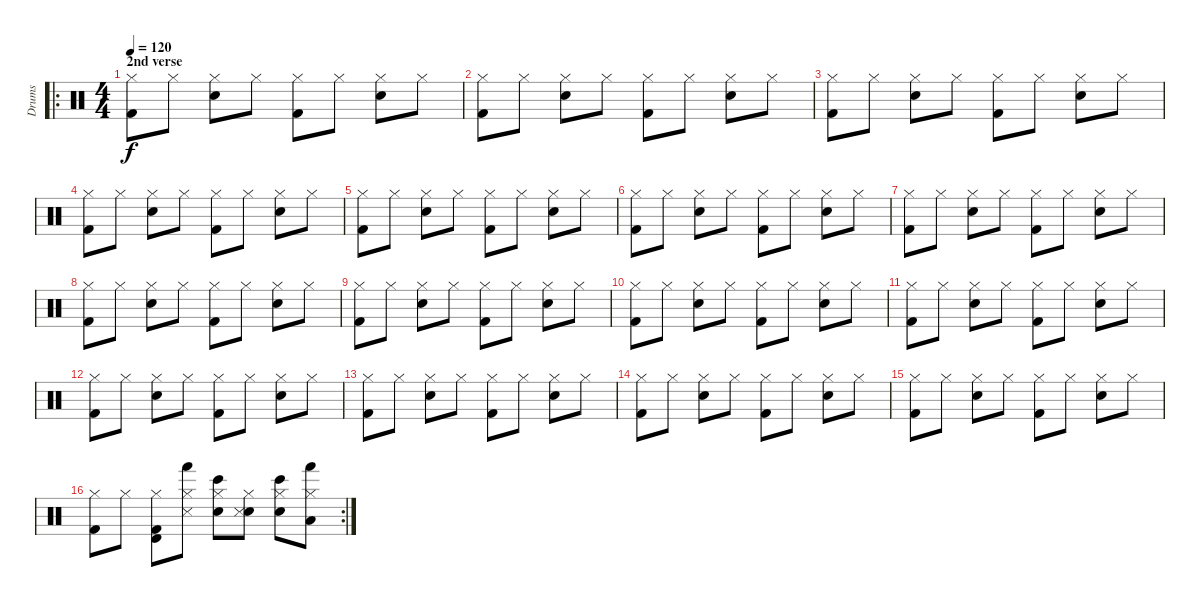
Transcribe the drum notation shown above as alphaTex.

\track ("Drums" "Drums") {instrument percussion}
\staff {score}
\articulation defaults
\ro
\ts (4 4)
\section ("" "2nd verse")
\tempo 120
\clef neutral
\ks c
("Hi-Hat (closed)" "Kick (hit) 2").8{dy f} "Hi-Hat (closed)".8 ("Hi-Hat (closed)" "Snare (hit) 2").8 "Hi-Hat (closed)".8 ("Hi-Hat (closed)" "Kick (hit) 2").8 "Hi-Hat (closed)".8 ("Hi-Hat (closed)" "Snare (hit) 2").8 "Hi-Hat (closed)".8 |
("Hi-Hat (closed)" "Kick (hit) 2").8 "Hi-Hat (closed)".8 ("Hi-Hat (closed)" "Snare (hit) 2").8 "Hi-Hat (closed)".8 ("Hi-Hat (closed)" "Kick (hit) 2").8 "Hi-Hat (closed)".8 ("Hi-Hat (closed)" "Snare (hit) 2").8 "Hi-Hat (closed)".8 |
("Hi-Hat (closed)" "Kick (hit) 2").8 "Hi-Hat (closed)".8 ("Hi-Hat (closed)" "Snare (hit) 2").8 "Hi-Hat (closed)".8 ("Hi-Hat (closed)" "Kick (hit) 2").8 "Hi-Hat (closed)".8 ("Hi-Hat (closed)" "Snare (hit) 2").8 "Hi-Hat (closed)".8 |
("Hi-Hat (closed)" "Kick (hit) 2").8 "Hi-Hat (closed)".8 ("Hi-Hat (closed)" "Snare (hit) 2").8 "Hi-Hat (closed)".8 ("Hi-Hat (closed)" "Kick (hit) 2").8 "Hi-Hat (closed)".8 ("Hi-Hat (closed)" "Snare (hit) 2").8 "Hi-Hat (closed)".8 |
("Hi-Hat (closed)" "Kick (hit) 2").8 "Hi-Hat (closed)".8 ("Hi-Hat (closed)" "Snare (hit) 2").8 "Hi-Hat (closed)".8 ("Hi-Hat (closed)" "Kick (hit) 2").8 "Hi-Hat (closed)".8 ("Hi-Hat (closed)" "Snare (hit) 2").8 "Hi-Hat (closed)".8 |
("Hi-Hat (closed)" "Kick (hit) 2").8 "Hi-Hat (closed)".8 ("Hi-Hat (closed)" "Snare (hit) 2").8 "Hi-Hat (closed)".8 ("Hi-Hat (closed)" "Kick (hit) 2").8 "Hi-Hat (closed)".8 ("Hi-Hat (closed)" "Snare (hit) 2").8 "Hi-Hat (closed)".8 |
("Hi-Hat (closed)" "Kick (hit) 2").8 "Hi-Hat (closed)".8 ("Hi-Hat (closed)" "Snare (hit) 2").8 "Hi-Hat (closed)".8 ("Hi-Hat (closed)" "Kick (hit) 2").8 "Hi-Hat (closed)".8 ("Hi-Hat (closed)" "Snare (hit) 2").8 "Hi-Hat (closed)".8 |
("Hi-Hat (closed)" "Kick (hit) 2").8 "Hi-Hat (closed)".8 ("Hi-Hat (closed)" "Snare (hit) 2").8 "Hi-Hat (closed)".8 ("Hi-Hat (closed)" "Kick (hit) 2").8 "Hi-Hat (closed)".8 ("Hi-Hat (closed)" "Snare (hit) 2").8 "Hi-Hat (closed)".8 |
("Hi-Hat (closed)" "Kick (hit) 2").8 "Hi-Hat (closed)".8 ("Hi-Hat (closed)" "Snare (hit) 2").8 "Hi-Hat (closed)".8 ("Hi-Hat (closed)" "Kick (hit) 2").8 "Hi-Hat (closed)".8 ("Hi-Hat (closed)" "Snare (hit) 2").8 "Hi-Hat (closed)".8 |
("Hi-Hat (closed)" "Kick (hit) 2").8 "Hi-Hat (closed)".8 ("Hi-Hat (closed)" "Snare (hit) 2").8 "Hi-Hat (closed)".8 ("Hi-Hat (closed)" "Kick (hit) 2").8 "Hi-Hat (closed)".8 ("Hi-Hat (closed)" "Snare (hit) 2").8 "Hi-Hat (closed)".8 |
("Hi-Hat (closed)" "Kick (hit) 2").8 "Hi-Hat (closed)".8 ("Hi-Hat (closed)" "Snare (hit) 2").8 "Hi-Hat (closed)".8 ("Hi-Hat (closed)" "Kick (hit) 2").8 "Hi-Hat (closed)".8 ("Hi-Hat (closed)" "Snare (hit) 2").8 "Hi-Hat (closed)".8 |
("Hi-Hat (closed)" "Kick (hit) 2").8 "Hi-Hat (closed)".8 ("Hi-Hat (closed)" "Snare (hit) 2").8 "Hi-Hat (closed)".8 ("Hi-Hat (closed)" "Kick (hit) 2").8 "Hi-Hat (closed)".8 ("Hi-Hat (closed)" "Snare (hit) 2").8 "Hi-Hat (closed)".8 |
("Hi-Hat (closed)" "Kick (hit) 2").8 "Hi-Hat (closed)".8 ("Hi-Hat (closed)" "Snare (hit) 2").8 "Hi-Hat (closed)".8 ("Hi-Hat (closed)" "Kick (hit) 2").8 "Hi-Hat (closed)".8 ("Hi-Hat (closed)" "Snare (hit) 2").8 "Hi-Hat (closed)".8 |
("Hi-Hat (closed)" "Kick (hit) 2").8 "Hi-Hat (closed)".8 ("Hi-Hat (closed)" "Snare (hit) 2").8 "Hi-Hat (closed)".8 ("Hi-Hat (closed)" "Kick (hit) 2").8 "Hi-Hat (closed)".8 ("Hi-Hat (closed)" "Snare (hit) 2").8 "Hi-Hat (closed)".8 |
("Hi-Hat (closed)" "Kick (hit) 2").8 "Hi-Hat (closed)".8 ("Hi-Hat (closed)" "Snare (hit) 2").8 "Hi-Hat (closed)".8 ("Hi-Hat (closed)" "Kick (hit) 2").8 "Hi-Hat (closed)".8 ("Hi-Hat (closed)" "Snare (hit) 2").8 "Hi-Hat (closed)".8 |
\rc 2
("Hi-Hat (closed)" "Kick (hit) 2").8 "Hi-Hat (closed)".8 ("Kick (hit) 2" "Timbale high (hit)" "Hi-Hat (closed)").8 ("Snare (side stick) 3" "Hand (hit)" "Hi-Hat (closed)").8 ("Snare (hit) 2" "Bongo High (hit)" "Hi-Hat (closed)").8 ("Hand Clap (hit)" "Snare (side stick) 3" "Hi-Hat (closed)").8 ("Electric Snare (hit)" "Bongo High (hit)" "Hi-Hat (closed)").8 ("Low Floor Tom (hit)" "Hand (hit)" "Hi-Hat (closed)").8
